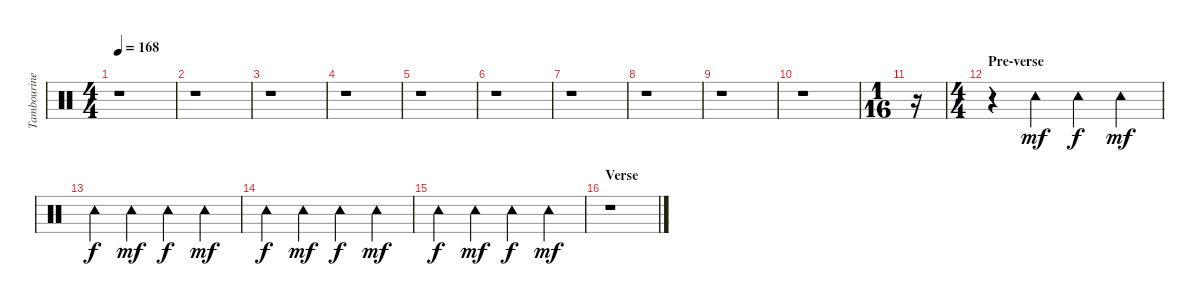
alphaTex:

\track ("Tambourine" "Tambourine") {instrument percussion}
\staff {score}
\articulation defaults
\ts (4 4)
\tempo 168
\clef neutral
\ks c
r.1{dy ff} |
r.1 |
r.1 |
r.1 |
r.1 |
r.1 |
r.1 |
r.1 |
r.1 |
r.1 |
\ts (1 16)
r.16 |
\ts (4 4)
\section ("" "Pre-verse")
r.4 "Tambourine (hit)".4{dy mf} "Tambourine (hit)".4{dy f} "Tambourine (hit)".4{dy mf} |
"Tambourine (hit)".4{dy f} "Tambourine (hit)".4{dy mf} "Tambourine (hit)".4{dy f} "Tambourine (hit)".4{dy mf} |
"Tambourine (hit)".4{dy f} "Tambourine (hit)".4{dy mf} "Tambourine (hit)".4{dy f} "Tambourine (hit)".4{dy mf} |
"Tambourine (hit)".4{dy f} "Tambourine (hit)".4{dy mf} "Tambourine (hit)".4{dy f} "Tambourine (hit)".4{dy mf} |
\section ("" "Verse")
r.1
